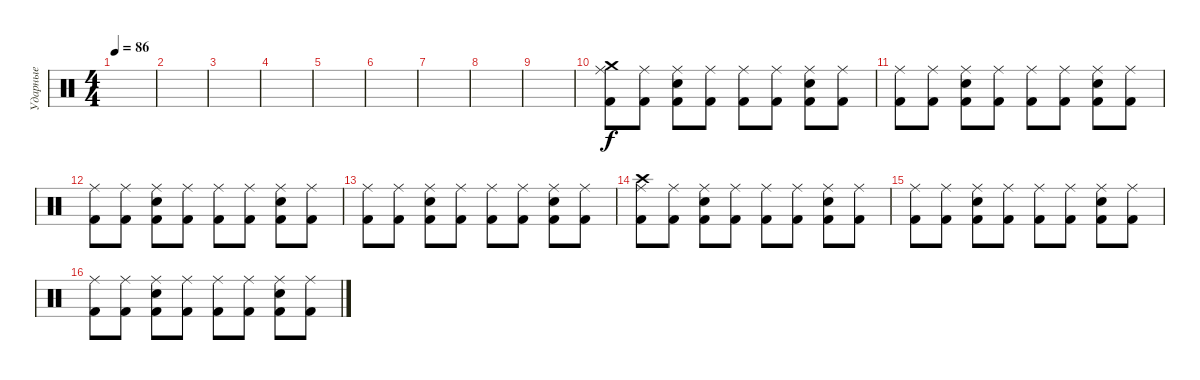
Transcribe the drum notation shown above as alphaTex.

\track ("Ударные" "Ударные") {instrument percussion}
\staff {score}
\articulation defaults
\ts (4 4)
\tempo 86
\clef neutral
\ks c
|
|
|
|
|
|
|
|
|
("Ride (middle)" "Crash medium (hit)" "Kick (hit) 2").8 ("Ride (middle)" "Kick (hit) 2").8 ("Ride (middle)" "Electric Snare (hit)" "Kick (hit) 2").8 ("Ride (middle)" "Kick (hit) 2").8 ("Ride (middle)" "Kick (hit) 2").8 ("Ride (middle)" "Kick (hit) 2").8 ("Ride (middle)" "Electric Snare (hit)" "Kick (hit) 2").8 ("Ride (middle)" "Kick (hit) 2").8 |
("Ride (middle)" "Kick (hit) 2").8 ("Ride (middle)" "Kick (hit) 2").8 ("Ride (middle)" "Electric Snare (hit)" "Kick (hit) 2").8 ("Ride (middle)" "Kick (hit) 2").8 ("Ride (middle)" "Kick (hit) 2").8 ("Ride (middle)" "Kick (hit) 2").8 ("Ride (middle)" "Electric Snare (hit)" "Kick (hit) 2").8 ("Ride (middle)" "Kick (hit) 2").8 |
("Ride (middle)" "Kick (hit) 2").8 ("Ride (middle)" "Kick (hit) 2").8 ("Ride (middle)" "Electric Snare (hit)" "Kick (hit) 2").8 ("Ride (middle)" "Kick (hit) 2").8 ("Ride (middle)" "Kick (hit) 2").8 ("Ride (middle)" "Kick (hit) 2").8 ("Ride (middle)" "Electric Snare (hit)" "Kick (hit) 2").8 ("Ride (middle)" "Kick (hit) 2").8 |
("Ride (middle)" "Kick (hit) 2").8 ("Ride (middle)" "Kick (hit) 2").8 ("Ride (middle)" "Electric Snare (hit)" "Kick (hit) 2").8 ("Ride (middle)" "Kick (hit) 2").8 ("Ride (middle)" "Kick (hit) 2").8 ("Ride (middle)" "Kick (hit) 2").8 ("Ride (middle)" "Electric Snare (hit)" "Kick (hit) 2").8 ("Ride (middle)" "Kick (hit) 2").8 |
("Ride (middle)" "Crash high (hit)" "Kick (hit) 2").8 ("Ride (middle)" "Kick (hit) 2").8 ("Ride (middle)" "Electric Snare (hit)" "Kick (hit) 2").8 ("Ride (middle)" "Kick (hit) 2").8 ("Ride (middle)" "Kick (hit) 2").8 ("Ride (middle)" "Kick (hit) 2").8 ("Ride (middle)" "Electric Snare (hit)" "Kick (hit) 2").8 ("Ride (middle)" "Kick (hit) 2").8 |
("Ride (middle)" "Kick (hit) 2").8 ("Ride (middle)" "Kick (hit) 2").8 ("Ride (middle)" "Electric Snare (hit)" "Kick (hit) 2").8 ("Ride (middle)" "Kick (hit) 2").8 ("Ride (middle)" "Kick (hit) 2").8 ("Ride (middle)" "Kick (hit) 2").8 ("Ride (middle)" "Electric Snare (hit)" "Kick (hit) 2").8 ("Ride (middle)" "Kick (hit) 2").8 |
("Ride (middle)" "Kick (hit) 2").8 ("Ride (middle)" "Kick (hit) 2").8 ("Ride (middle)" "Electric Snare (hit)" "Kick (hit) 2").8 ("Ride (middle)" "Kick (hit) 2").8 ("Ride (middle)" "Kick (hit) 2").8 ("Ride (middle)" "Kick (hit) 2").8 ("Ride (middle)" "Electric Snare (hit)" "Kick (hit) 2").8 ("Ride (middle)" "Kick (hit) 2").8
